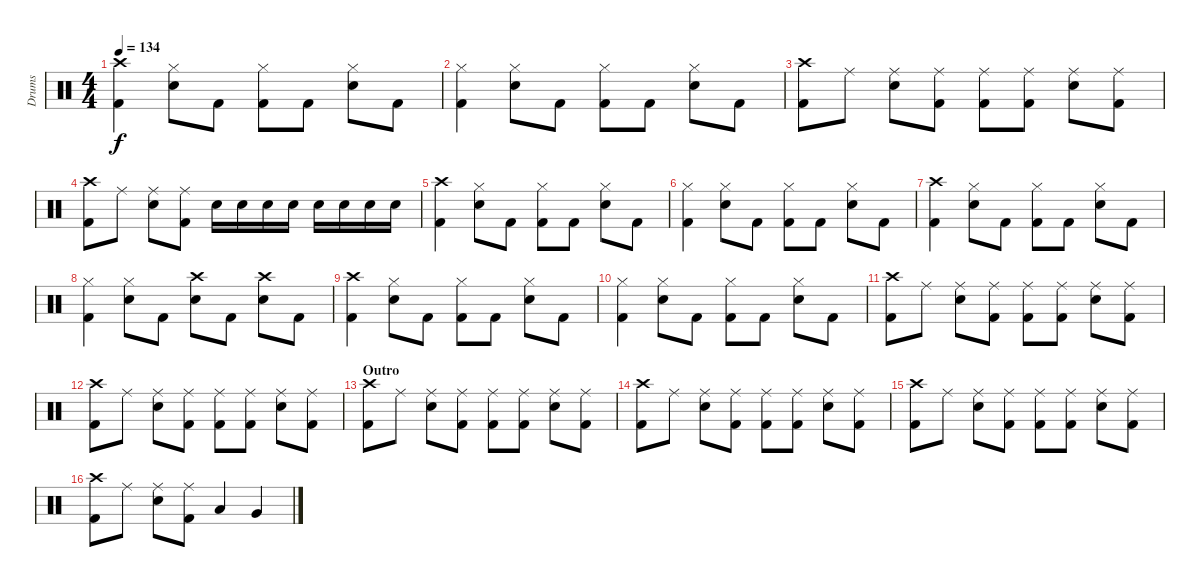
\track ("Drums" "Drums") {instrument percussion}
\staff {score}
\articulation defaults
\ts (4 4)
\tempo 134
\clef neutral
\ks c
("Crash high (hit)" "Kick (hit) 2").4{dy f} ("Hi-Hat (closed)" "Electric Snare (hit)").8 "Kick (hit) 2".8 ("Hi-Hat (closed)" "Kick (hit) 2").8 "Kick (hit) 2".8 ("Hi-Hat (closed)" "Electric Snare (hit)").8 "Kick (hit) 2".8 |
("Hi-Hat (closed)" "Kick (hit) 2").4 ("Hi-Hat (closed)" "Electric Snare (hit)").8 "Kick (hit) 2".8 ("Hi-Hat (closed)" "Kick (hit) 2").8 "Kick (hit) 2".8 ("Hi-Hat (closed)" "Electric Snare (hit)").8 "Kick (hit) 2".8 |
("Crash high (hit)" "Kick (hit) 2").8 "Ride (middle)".8 ("Ride (middle)" "Electric Snare (hit)").8 ("Ride (middle)" "Kick (hit) 2").8 ("Ride (middle)" "Kick (hit) 2").8 ("Ride (middle)" "Kick (hit) 2").8 ("Ride (middle)" "Electric Snare (hit)").8 ("Ride (middle)" "Kick (hit) 2").8 |
("Crash high (hit)" "Kick (hit) 2").8 "Ride (middle)".8 ("Ride (middle)" "Electric Snare (hit)").8 ("Ride (middle)" "Kick (hit) 2").8 "Electric Snare (hit)".16 "Electric Snare (hit)".16 "Electric Snare (hit)".16 "Electric Snare (hit)".16 "Electric Snare (hit)".16 "Electric Snare (hit)".16 "Electric Snare (hit)".16 "Electric Snare (hit)".16 |
("Crash high (hit)" "Kick (hit) 2").4 ("Hi-Hat (closed)" "Electric Snare (hit)").8 "Kick (hit) 2".8 ("Hi-Hat (closed)" "Kick (hit) 2").8 "Kick (hit) 2".8 ("Hi-Hat (closed)" "Electric Snare (hit)").8 "Kick (hit) 2".8 |
("Hi-Hat (closed)" "Kick (hit) 2").4 ("Hi-Hat (closed)" "Electric Snare (hit)").8 "Kick (hit) 2".8 ("Hi-Hat (closed)" "Kick (hit) 2").8 "Kick (hit) 2".8 ("Hi-Hat (closed)" "Electric Snare (hit)").8 "Kick (hit) 2".8 |
("Crash high (hit)" "Kick (hit) 2").4 ("Hi-Hat (closed)" "Electric Snare (hit)").8 "Kick (hit) 2".8 ("Hi-Hat (closed)" "Kick (hit) 2").8 "Kick (hit) 2".8 ("Hi-Hat (closed)" "Electric Snare (hit)").8 "Kick (hit) 2".8 |
("Hi-Hat (closed)" "Kick (hit) 2").4 ("Hi-Hat (closed)" "Electric Snare (hit)").8 "Kick (hit) 2".8 ("Crash high (hit)" "Electric Snare (hit)").8 "Kick (hit) 2".8 ("Crash high (hit)" "Electric Snare (hit)").8 "Kick (hit) 2".8 |
("Crash high (hit)" "Kick (hit) 2").4 ("Hi-Hat (closed)" "Electric Snare (hit)").8 "Kick (hit) 2".8 ("Hi-Hat (closed)" "Kick (hit) 2").8 "Kick (hit) 2".8 ("Hi-Hat (closed)" "Electric Snare (hit)").8 "Kick (hit) 2".8 |
("Hi-Hat (closed)" "Kick (hit) 2").4 ("Hi-Hat (closed)" "Electric Snare (hit)").8 "Kick (hit) 2".8 ("Hi-Hat (closed)" "Kick (hit) 2").8 "Kick (hit) 2".8 ("Hi-Hat (closed)" "Electric Snare (hit)").8 "Kick (hit) 2".8 |
("Crash high (hit)" "Kick (hit) 2").8 "Ride (middle)".8 ("Ride (middle)" "Electric Snare (hit)").8 ("Ride (middle)" "Kick (hit) 2").8 ("Ride (middle)" "Kick (hit) 2").8 ("Ride (middle)" "Kick (hit) 2").8 ("Ride (middle)" "Electric Snare (hit)").8 ("Ride (middle)" "Kick (hit) 2").8 |
("Crash high (hit)" "Kick (hit) 2").8 "Ride (middle)".8 ("Ride (middle)" "Electric Snare (hit)").8 ("Ride (middle)" "Kick (hit) 2").8 ("Ride (middle)" "Kick (hit) 2").8 ("Ride (middle)" "Kick (hit) 2").8 ("Ride (middle)" "Electric Snare (hit)").8 ("Ride (middle)" "Kick (hit) 2").8 |
\section ("" "Outro")
("Crash high (hit)" "Kick (hit) 2").8 "Ride (middle)".8 ("Ride (middle)" "Electric Snare (hit)").8 ("Ride (middle)" "Kick (hit) 2").8 ("Ride (middle)" "Kick (hit) 2").8 ("Ride (middle)" "Kick (hit) 2").8 ("Ride (middle)" "Electric Snare (hit)").8 ("Ride (middle)" "Kick (hit) 2").8 |
("Crash high (hit)" "Kick (hit) 2").8 "Ride (middle)".8 ("Ride (middle)" "Electric Snare (hit)").8 ("Ride (middle)" "Kick (hit) 2").8 ("Ride (middle)" "Kick (hit) 2").8 ("Ride (middle)" "Kick (hit) 2").8 ("Ride (middle)" "Electric Snare (hit)").8 ("Ride (middle)" "Kick (hit) 2").8 |
("Crash high (hit)" "Kick (hit) 2").8 "Ride (middle)".8 ("Ride (middle)" "Electric Snare (hit)").8 ("Ride (middle)" "Kick (hit) 2").8 ("Ride (middle)" "Kick (hit) 2").8 ("Ride (middle)" "Kick (hit) 2").8 ("Ride (middle)" "Electric Snare (hit)").8 ("Ride (middle)" "Kick (hit) 2").8 |
("Crash high (hit)" "Kick (hit) 2").8 "Ride (middle)".8 ("Ride (middle)" "Electric Snare (hit)").8 ("Ride (middle)" "Kick (hit) 2").8 "Low Tom (hit)".4 "Very Low Tom (hit)".4
